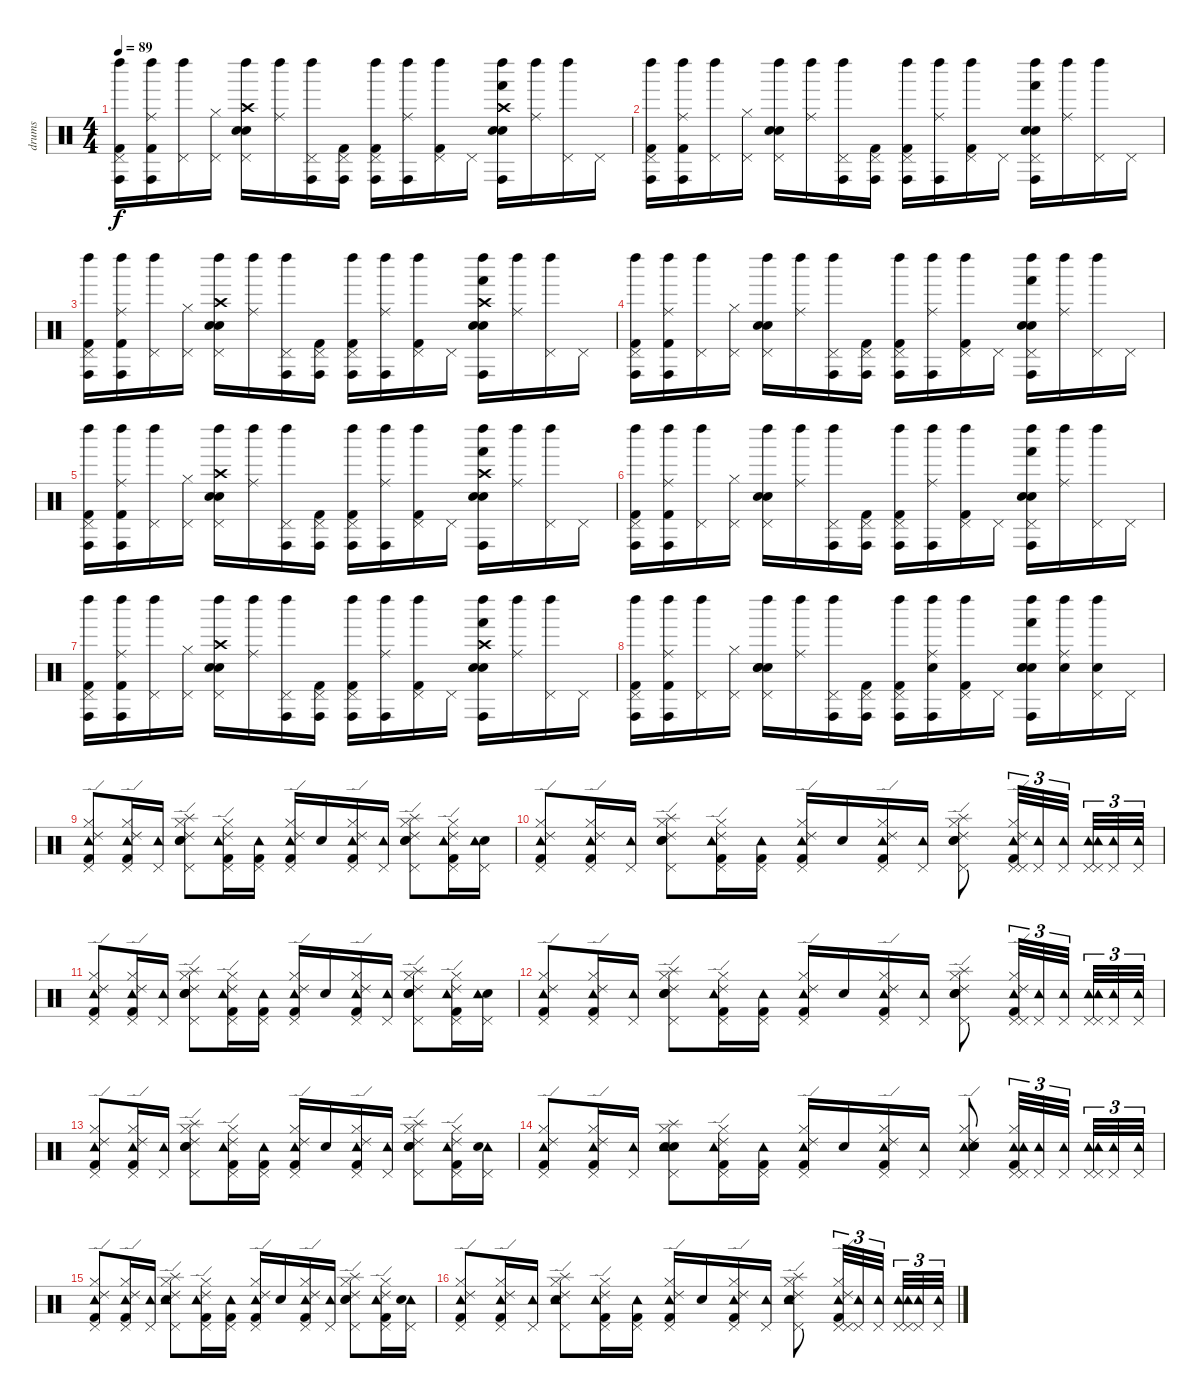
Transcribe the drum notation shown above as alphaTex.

\track ("drums" "drums") {instrument percussion}
\staff {score}
\articulation defaults
\ts (4 4)
\tempo 89
\clef neutral
\ks c
("Left Maraca (hit)" "Conga high (hit)" "Kick (hit) 2" "Pedal Hi-Hat (hit)").16{dy f} ("Left Maraca (hit)" "Conga high (hit)" "Kick (hit) 2" "Ride (middle)").16 ("Left Maraca (hit)" "Pedal Hi-Hat (hit)").16 ("Hi-Hat (closed)" "Pedal Hi-Hat (hit)").16 ("Left Maraca (hit)" "Crash high (hit)" "Hand Clap (hit)" "Hand Clap (hit)" "Pedal Hi-Hat (hit)").16 ("Left Maraca (hit)" "Ride (middle)").16 ("Left Maraca (hit)" "Conga high (hit)" "Pedal Hi-Hat (hit)").16 ("Conga high (hit)" "Kick (hit) 2" "Pedal Hi-Hat (hit)").16 ("Left Maraca (hit)" "Conga high (hit)" "Kick (hit) 2" "Pedal Hi-Hat (hit)").16 ("Left Maraca (hit)" "Conga high (hit)" "Ride (middle)").16 ("Left Maraca (hit)" "Kick (hit) 2" "Pedal Hi-Hat (hit)").16 "Pedal Hi-Hat (hit)".16 ("Left Maraca (hit)" "Hand (hit)" "Conga high (hit)" "Crash high (hit)" "Hand Clap (hit)" "Hand Clap (hit)").16 ("Left Maraca (hit)" "Ride (middle)").16 ("Left Maraca (hit)" "Pedal Hi-Hat (hit)").16 "Pedal Hi-Hat (hit)".16 |
("Left Maraca (hit)" "Conga high (hit)" "Kick (hit) 2" "Pedal Hi-Hat (hit)").16 ("Left Maraca (hit)" "Conga high (hit)" "Kick (hit) 2" "Ride (middle)").16 ("Left Maraca (hit)" "Pedal Hi-Hat (hit)").16 ("Hi-Hat (closed)" "Pedal Hi-Hat (hit)").16 ("Left Maraca (hit)" "Hand Clap (hit)" "Hand Clap (hit)" "Pedal Hi-Hat (hit)").16 ("Left Maraca (hit)" "Ride (middle)").16 ("Left Maraca (hit)" "Conga high (hit)" "Pedal Hi-Hat (hit)").16 ("Conga high (hit)" "Kick (hit) 2" "Pedal Hi-Hat (hit)").16 ("Left Maraca (hit)" "Conga high (hit)" "Kick (hit) 2" "Pedal Hi-Hat (hit)").16 ("Left Maraca (hit)" "Conga high (hit)" "Ride (middle)").16 ("Left Maraca (hit)" "Kick (hit) 2" "Pedal Hi-Hat (hit)").16 "Pedal Hi-Hat (hit)".16 ("Left Maraca (hit)" "Hand (hit)" "Conga high (hit)" "Hand Clap (hit)" "Hand Clap (hit)" "Pedal Hi-Hat (hit)").16 ("Left Maraca (hit)" "Ride (middle)").16 ("Left Maraca (hit)" "Pedal Hi-Hat (hit)").16 "Pedal Hi-Hat (hit)".16 |
("Left Maraca (hit)" "Conga high (hit)" "Kick (hit) 2" "Pedal Hi-Hat (hit)").16 ("Left Maraca (hit)" "Conga high (hit)" "Kick (hit) 2" "Ride (middle)").16 ("Left Maraca (hit)" "Pedal Hi-Hat (hit)").16 ("Hi-Hat (closed)" "Pedal Hi-Hat (hit)").16 ("Left Maraca (hit)" "Hand Clap (hit)" "Hand Clap (hit)" "Pedal Hi-Hat (hit)" "Crash high (hit)").16 ("Left Maraca (hit)" "Ride (middle)").16 ("Left Maraca (hit)" "Conga high (hit)" "Pedal Hi-Hat (hit)").16 ("Conga high (hit)" "Kick (hit) 2" "Pedal Hi-Hat (hit)").16 ("Left Maraca (hit)" "Conga high (hit)" "Kick (hit) 2" "Pedal Hi-Hat (hit)").16 ("Left Maraca (hit)" "Conga high (hit)" "Ride (middle)").16 ("Left Maraca (hit)" "Kick (hit) 2" "Pedal Hi-Hat (hit)").16 "Pedal Hi-Hat (hit)".16 ("Left Maraca (hit)" "Hand (hit)" "Conga high (hit)" "Crash high (hit)" "Hand Clap (hit)" "Hand Clap (hit)").16 ("Left Maraca (hit)" "Ride (middle)").16 ("Left Maraca (hit)" "Pedal Hi-Hat (hit)").16 "Pedal Hi-Hat (hit)".16 |
("Left Maraca (hit)" "Conga high (hit)" "Kick (hit) 2" "Pedal Hi-Hat (hit)").16 ("Left Maraca (hit)" "Conga high (hit)" "Kick (hit) 2" "Ride (middle)").16 ("Left Maraca (hit)" "Pedal Hi-Hat (hit)").16 ("Hi-Hat (closed)" "Pedal Hi-Hat (hit)").16 ("Left Maraca (hit)" "Hand Clap (hit)" "Hand Clap (hit)" "Pedal Hi-Hat (hit)").16 ("Left Maraca (hit)" "Ride (middle)").16 ("Left Maraca (hit)" "Conga high (hit)" "Pedal Hi-Hat (hit)").16 ("Conga high (hit)" "Kick (hit) 2" "Pedal Hi-Hat (hit)").16 ("Left Maraca (hit)" "Conga high (hit)" "Kick (hit) 2" "Pedal Hi-Hat (hit)").16 ("Left Maraca (hit)" "Conga high (hit)" "Ride (middle)").16 ("Left Maraca (hit)" "Kick (hit) 2" "Pedal Hi-Hat (hit)").16 "Pedal Hi-Hat (hit)".16 ("Left Maraca (hit)" "Hand (hit)" "Conga high (hit)" "Hand Clap (hit)" "Hand Clap (hit)" "Pedal Hi-Hat (hit)").16 ("Left Maraca (hit)" "Ride (middle)").16 ("Left Maraca (hit)" "Pedal Hi-Hat (hit)").16 "Pedal Hi-Hat (hit)".16 |
("Left Maraca (hit)" "Conga high (hit)" "Kick (hit) 2" "Pedal Hi-Hat (hit)").16 ("Left Maraca (hit)" "Conga high (hit)" "Kick (hit) 2" "Ride (middle)").16 ("Left Maraca (hit)" "Pedal Hi-Hat (hit)").16 ("Hi-Hat (closed)" "Pedal Hi-Hat (hit)").16 ("Left Maraca (hit)" "Crash high (hit)" "Hand Clap (hit)" "Hand Clap (hit)" "Pedal Hi-Hat (hit)").16 ("Left Maraca (hit)" "Ride (middle)").16 ("Left Maraca (hit)" "Conga high (hit)" "Pedal Hi-Hat (hit)").16 ("Conga high (hit)" "Kick (hit) 2" "Pedal Hi-Hat (hit)").16 ("Left Maraca (hit)" "Conga high (hit)" "Kick (hit) 2" "Pedal Hi-Hat (hit)").16 ("Left Maraca (hit)" "Conga high (hit)" "Ride (middle)").16 ("Left Maraca (hit)" "Kick (hit) 2" "Pedal Hi-Hat (hit)").16 "Pedal Hi-Hat (hit)".16 ("Left Maraca (hit)" "Hand (hit)" "Conga high (hit)" "Crash high (hit)" "Hand Clap (hit)" "Hand Clap (hit)").16 ("Left Maraca (hit)" "Ride (middle)").16 ("Left Maraca (hit)" "Pedal Hi-Hat (hit)").16 "Pedal Hi-Hat (hit)".16 |
("Left Maraca (hit)" "Conga high (hit)" "Kick (hit) 2" "Pedal Hi-Hat (hit)").16 ("Left Maraca (hit)" "Conga high (hit)" "Kick (hit) 2" "Ride (middle)").16 ("Left Maraca (hit)" "Pedal Hi-Hat (hit)").16 ("Hi-Hat (closed)" "Pedal Hi-Hat (hit)").16 ("Left Maraca (hit)" "Hand Clap (hit)" "Hand Clap (hit)" "Pedal Hi-Hat (hit)").16 ("Left Maraca (hit)" "Ride (middle)").16 ("Left Maraca (hit)" "Conga high (hit)" "Pedal Hi-Hat (hit)").16 ("Conga high (hit)" "Kick (hit) 2" "Pedal Hi-Hat (hit)").16 ("Left Maraca (hit)" "Conga high (hit)" "Kick (hit) 2" "Pedal Hi-Hat (hit)").16 ("Left Maraca (hit)" "Conga high (hit)" "Ride (middle)").16 ("Left Maraca (hit)" "Kick (hit) 2" "Pedal Hi-Hat (hit)").16 "Pedal Hi-Hat (hit)".16 ("Left Maraca (hit)" "Hand (hit)" "Conga high (hit)" "Hand Clap (hit)" "Hand Clap (hit)" "Pedal Hi-Hat (hit)").16 ("Left Maraca (hit)" "Ride (middle)").16 ("Left Maraca (hit)" "Pedal Hi-Hat (hit)").16 "Pedal Hi-Hat (hit)".16 |
("Left Maraca (hit)" "Conga high (hit)" "Kick (hit) 2" "Pedal Hi-Hat (hit)").16 ("Left Maraca (hit)" "Conga high (hit)" "Kick (hit) 2" "Ride (middle)").16 ("Left Maraca (hit)" "Pedal Hi-Hat (hit)").16 ("Hi-Hat (closed)" "Pedal Hi-Hat (hit)").16 ("Left Maraca (hit)" "Hand Clap (hit)" "Hand Clap (hit)" "Pedal Hi-Hat (hit)" "Crash high (hit)").16 ("Left Maraca (hit)" "Ride (middle)").16 ("Left Maraca (hit)" "Conga high (hit)" "Pedal Hi-Hat (hit)").16 ("Conga high (hit)" "Kick (hit) 2" "Pedal Hi-Hat (hit)").16 ("Left Maraca (hit)" "Conga high (hit)" "Kick (hit) 2" "Pedal Hi-Hat (hit)").16 ("Left Maraca (hit)" "Conga high (hit)" "Ride (middle)").16 ("Left Maraca (hit)" "Kick (hit) 2" "Pedal Hi-Hat (hit)").16 "Pedal Hi-Hat (hit)".16 ("Left Maraca (hit)" "Hand (hit)" "Conga high (hit)" "Crash high (hit)" "Hand Clap (hit)" "Hand Clap (hit)").16 ("Left Maraca (hit)" "Ride (middle)").16 ("Left Maraca (hit)" "Pedal Hi-Hat (hit)").16 "Pedal Hi-Hat (hit)".16 |
("Left Maraca (hit)" "Conga high (hit)" "Kick (hit) 2" "Pedal Hi-Hat (hit)").16 ("Left Maraca (hit)" "Conga high (hit)" "Kick (hit) 2" "Ride (middle)").16 ("Left Maraca (hit)" "Pedal Hi-Hat (hit)").16 ("Hi-Hat (closed)" "Pedal Hi-Hat (hit)").16 ("Electric Snare (hit)" "Left Maraca (hit)" "Hand Clap (hit)" "Hand Clap (hit)" "Pedal Hi-Hat (hit)").16 ("Left Maraca (hit)" "Ride (middle)").16 ("Left Maraca (hit)" "Conga high (hit)" "Pedal Hi-Hat (hit)").16 ("Conga high (hit)" "Kick (hit) 2" "Pedal Hi-Hat (hit)").16 ("Left Maraca (hit)" "Conga high (hit)" "Kick (hit) 2" "Pedal Hi-Hat (hit)").16 ("Electric Snare (hit)" "Left Maraca (hit)" "Conga high (hit)" "Ride (middle)").16 ("Left Maraca (hit)" "Kick (hit) 2" "Pedal Hi-Hat (hit)").16 "Pedal Hi-Hat (hit)".16 ("Electric Snare (hit)" "Left Maraca (hit)" "Hand (hit)" "Conga high (hit)" "Hand Clap (hit)" "Hand Clap (hit)").16 ("Electric Snare (hit)" "Left Maraca (hit)" "Ride (middle)").16 ("Electric Snare (hit)" "Left Maraca (hit)" "Pedal Hi-Hat (hit)").16 "Pedal Hi-Hat (hit)".16 |
("Pedal Hi-Hat (hit)" "Ride (edge) 2" "Hi-Hat (closed)" "Kick (hit) 2" "Tambourine (hit)").8 ("Pedal Hi-Hat (hit)" "Ride (edge) 2" "Hi-Hat (closed)" "Kick (hit) 2" "Tambourine (hit)").16 ("Pedal Hi-Hat (hit)" "Tambourine (hit)").16 ("Pedal Hi-Hat (hit)" "Ride (edge) 2" "Hi-Hat (closed)" "Electric Snare (hit)" "Splash (hit)" "Electric Snare (hit)").8 ("Pedal Hi-Hat (hit)" "Ride (edge) 2" "Hi-Hat (closed)" "Kick (hit) 2" "Tambourine (hit)").16 ("Pedal Hi-Hat (hit)" "Kick (hit) 2" "Tambourine (hit)").16 ("Pedal Hi-Hat (hit)" "Ride (edge) 2" "Kick (hit) 2" "Hi-Hat (closed)" "Tambourine (hit)").16 "Electric Snare (hit)".16 ("Pedal Hi-Hat (hit)" "Ride (edge) 2" "Hi-Hat (closed)" "Kick (hit) 2" "Tambourine (hit)").16 ("Pedal Hi-Hat (hit)" "Tambourine (hit)").16 ("Pedal Hi-Hat (hit)" "Ride (edge) 2" "Hi-Hat (closed)" "Splash (hit)" "Electric Snare (hit)" "Electric Snare (hit)").8 ("Pedal Hi-Hat (hit)" "Ride (edge) 2" "Hi-Hat (closed)" "Kick (hit) 2" "Tambourine (hit)").16 ("Pedal Hi-Hat (hit)" "Electric Snare (hit)" "Tambourine (hit)").16 |
("Pedal Hi-Hat (hit)" "Hi-Hat (closed)" "Kick (hit) 2" "Ride (edge) 2" "Tambourine (hit)").8 ("Pedal Hi-Hat (hit)" "Hi-Hat (closed)" "Kick (hit) 2" "Ride (edge) 2" "Tambourine (hit)").16 ("Pedal Hi-Hat (hit)" "Tambourine (hit)").16 ("Pedal Hi-Hat (hit)" "Hi-Hat (closed)" "Electric Snare (hit)" "Splash (hit)" "Electric Snare (hit)" "Ride (edge) 2").8 ("Pedal Hi-Hat (hit)" "Kick (hit) 2" "Hi-Hat (closed)" "Ride (edge) 2" "Tambourine (hit)").16 ("Pedal Hi-Hat (hit)" "Kick (hit) 2" "Tambourine (hit)").16 ("Pedal Hi-Hat (hit)" "Kick (hit) 2" "Hi-Hat (closed)" "Ride (edge) 2" "Tambourine (hit)").16 "Electric Snare (hit)".16 ("Pedal Hi-Hat (hit)" "Hi-Hat (closed)" "Kick (hit) 2" "Ride (edge) 2" "Tambourine (hit)").16 ("Pedal Hi-Hat (hit)" "Tambourine (hit)").16 ("Pedal Hi-Hat (hit)" "Hi-Hat (closed)" "Splash (hit)" "Electric Snare (hit)" "Electric Snare (hit)" "Ride (edge) 2").8 ("Pedal Hi-Hat (hit)" "Hi-Hat (closed)" "Pedal Hi-Hat (hit)" "Kick (hit) 2" "Ride (edge) 2" "Tambourine (hit)").32{tu (3 2)} ("Pedal Hi-Hat (hit)" "Tambourine (hit)").32{tu (3 2)} ("Pedal Hi-Hat (hit)" "Tambourine (hit)").32{tu (3 2) beam splitsecondary} ("Pedal Hi-Hat (hit)" "Pedal Hi-Hat (hit)" "Tambourine (hit)" "Tambourine (hit)").32{tu (3 2)} ("Pedal Hi-Hat (hit)" "Tambourine (hit)").32{tu (3 2)} ("Pedal Hi-Hat (hit)" "Tambourine (hit)").32{tu (3 2)} |
("Pedal Hi-Hat (hit)" "Ride (edge) 2" "Hi-Hat (closed)" "Kick (hit) 2" "Tambourine (hit)").8 ("Pedal Hi-Hat (hit)" "Ride (edge) 2" "Hi-Hat (closed)" "Kick (hit) 2" "Tambourine (hit)").16 ("Pedal Hi-Hat (hit)" "Tambourine (hit)").16 ("Pedal Hi-Hat (hit)" "Ride (edge) 2" "Hi-Hat (closed)" "Electric Snare (hit)" "Splash (hit)" "Electric Snare (hit)").8 ("Pedal Hi-Hat (hit)" "Ride (edge) 2" "Hi-Hat (closed)" "Kick (hit) 2" "Tambourine (hit)").16 ("Pedal Hi-Hat (hit)" "Kick (hit) 2" "Tambourine (hit)").16 ("Pedal Hi-Hat (hit)" "Ride (edge) 2" "Kick (hit) 2" "Hi-Hat (closed)" "Tambourine (hit)").16 "Electric Snare (hit)".16 ("Pedal Hi-Hat (hit)" "Ride (edge) 2" "Hi-Hat (closed)" "Kick (hit) 2" "Tambourine (hit)").16 ("Pedal Hi-Hat (hit)" "Tambourine (hit)").16 ("Pedal Hi-Hat (hit)" "Ride (edge) 2" "Hi-Hat (closed)" "Splash (hit)" "Electric Snare (hit)" "Electric Snare (hit)").8 ("Pedal Hi-Hat (hit)" "Ride (edge) 2" "Hi-Hat (closed)" "Kick (hit) 2" "Tambourine (hit)").16 ("Pedal Hi-Hat (hit)" "Electric Snare (hit)" "Tambourine (hit)").16 |
("Pedal Hi-Hat (hit)" "Hi-Hat (closed)" "Kick (hit) 2" "Ride (edge) 2" "Tambourine (hit)").8 ("Pedal Hi-Hat (hit)" "Hi-Hat (closed)" "Kick (hit) 2" "Ride (edge) 2" "Tambourine (hit)").16 ("Pedal Hi-Hat (hit)" "Tambourine (hit)").16 ("Pedal Hi-Hat (hit)" "Hi-Hat (closed)" "Electric Snare (hit)" "Splash (hit)" "Electric Snare (hit)" "Ride (edge) 2").8 ("Pedal Hi-Hat (hit)" "Kick (hit) 2" "Hi-Hat (closed)" "Ride (edge) 2" "Tambourine (hit)").16 ("Pedal Hi-Hat (hit)" "Kick (hit) 2" "Tambourine (hit)").16 ("Pedal Hi-Hat (hit)" "Kick (hit) 2" "Hi-Hat (closed)" "Ride (edge) 2" "Tambourine (hit)").16 "Electric Snare (hit)".16 ("Pedal Hi-Hat (hit)" "Hi-Hat (closed)" "Kick (hit) 2" "Ride (edge) 2" "Tambourine (hit)").16 ("Pedal Hi-Hat (hit)" "Tambourine (hit)").16 ("Pedal Hi-Hat (hit)" "Hi-Hat (closed)" "Splash (hit)" "Electric Snare (hit)" "Electric Snare (hit)" "Ride (edge) 2").8 ("Pedal Hi-Hat (hit)" "Hi-Hat (closed)" "Pedal Hi-Hat (hit)" "Kick (hit) 2" "Ride (edge) 2" "Tambourine (hit)").32{tu (3 2)} ("Pedal Hi-Hat (hit)" "Tambourine (hit)").32{tu (3 2)} ("Pedal Hi-Hat (hit)" "Tambourine (hit)").32{tu (3 2) beam splitsecondary} ("Pedal Hi-Hat (hit)" "Pedal Hi-Hat (hit)" "Tambourine (hit)" "Tambourine (hit)").32{tu (3 2)} ("Pedal Hi-Hat (hit)" "Tambourine (hit)").32{tu (3 2)} ("Pedal Hi-Hat (hit)" "Tambourine (hit)").32{tu (3 2)} |
("Pedal Hi-Hat (hit)" "Ride (edge) 2" "Hi-Hat (closed)" "Kick (hit) 2" "Tambourine (hit)").8 ("Ride (edge) 2" "Hi-Hat (closed)" "Kick (hit) 2" "Tambourine (hit)" "Pedal Hi-Hat (hit)").16 ("Tambourine (hit)" "Pedal Hi-Hat (hit)").16 ("Pedal Hi-Hat (hit)" "Splash (hit)" "Electric Snare (hit)" "Hi-Hat (closed)" "Electric Snare (hit)" "Ride (edge) 2").8 ("Pedal Hi-Hat (hit)" "Ride (edge) 2" "Tambourine (hit)" "Hi-Hat (closed)" "Kick (hit) 2").16 ("Tambourine (hit)" "Pedal Hi-Hat (hit)" "Kick (hit) 2").16 ("Pedal Hi-Hat (hit)" "Ride (edge) 2" "Tambourine (hit)" "Kick (hit) 2" "Hi-Hat (closed)").16 "Electric Snare (hit)".16 ("Tambourine (hit)" "Pedal Hi-Hat (hit)" "Ride (edge) 2" "Hi-Hat (closed)" "Kick (hit) 2").16 ("Pedal Hi-Hat (hit)" "Tambourine (hit)").16 ("Hi-Hat (closed)" "Electric Snare (hit)" "Electric Snare (hit)" "Splash (hit)" "Ride (edge) 2" "Pedal Hi-Hat (hit)").8 ("Tambourine (hit)" "Ride (edge) 2" "Hi-Hat (closed)" "Pedal Hi-Hat (hit)" "Kick (hit) 2").16 ("Tambourine (hit)" "Electric Snare (hit)" "Pedal Hi-Hat (hit)").16 |
("Tambourine (hit)" "Pedal Hi-Hat (hit)" "Hi-Hat (closed)" "Kick (hit) 2" "Ride (edge) 2").8 ("Pedal Hi-Hat (hit)" "Hi-Hat (closed)" "Kick (hit) 2" "Tambourine (hit)" "Ride (edge) 2").16 ("Pedal Hi-Hat (hit)" "Tambourine (hit)").16 ("Hi-Hat (closed)" "Splash (hit)" "Electric Snare (hit)" "Electric Snare (hit)" "Tambourine (hit)" "Pedal Hi-Hat (hit)").8 ("Ride (edge) 2" "Kick (hit) 2" "Hi-Hat (closed)" "Pedal Hi-Hat (hit)" "Tambourine (hit)").16 ("Pedal Hi-Hat (hit)" "Tambourine (hit)" "Kick (hit) 2").16 ("Tambourine (hit)" "Kick (hit) 2" "Pedal Hi-Hat (hit)" "Hi-Hat (closed)" "Ride (edge) 2").16 "Electric Snare (hit)".16 ("Pedal Hi-Hat (hit)" "Hi-Hat (closed)" "Kick (hit) 2" "Ride (edge) 2" "Tambourine (hit)").16 ("Tambourine (hit)" "Pedal Hi-Hat (hit)").16 ("Hi-Hat (closed)" "Pedal Hi-Hat (hit)" "Tambourine (hit)" "Electric Snare (hit)" "Electric Snare (hit)" "Ride (edge) 2").8 ("Pedal Hi-Hat (hit)" "Hi-Hat (closed)" "Tambourine (hit)" "Tambourine (hit)" "Pedal Hi-Hat (hit)" "Kick (hit) 2").32{tu (3 2)} ("Tambourine (hit)" "Pedal Hi-Hat (hit)").32{tu (3 2)} ("Tambourine (hit)" "Pedal Hi-Hat (hit)").32{tu (3 2) beam splitsecondary} ("Tambourine (hit)" "Pedal Hi-Hat (hit)" "Pedal Hi-Hat (hit)" "Tambourine (hit)").32{tu (3 2)} ("Tambourine (hit)" "Pedal Hi-Hat (hit)").32{tu (3 2)} ("Tambourine (hit)" "Pedal Hi-Hat (hit)").32{tu (3 2)} |
("Ride (edge) 2" "Pedal Hi-Hat (hit)" "Hi-Hat (closed)" "Kick (hit) 2" "Tambourine (hit)").8 ("Pedal Hi-Hat (hit)" "Tambourine (hit)" "Kick (hit) 2" "Ride (edge) 2" "Hi-Hat (closed)").16 ("Tambourine (hit)" "Pedal Hi-Hat (hit)").16 ("Pedal Hi-Hat (hit)" "Ride (edge) 2" "Tambourine (hit)" "Hi-Hat (closed)" "Electric Snare (hit)" "Splash (hit)").8 ("Pedal Hi-Hat (hit)" "Ride (edge) 2" "Tambourine (hit)" "Kick (hit) 2" "Hi-Hat (closed)").16 ("Tambourine (hit)" "Kick (hit) 2" "Pedal Hi-Hat (hit)").16 ("Ride (edge) 2" "Kick (hit) 2" "Hi-Hat (closed)" "Pedal Hi-Hat (hit)" "Tambourine (hit)").16 "Electric Snare (hit)".16 ("Tambourine (hit)" "Ride (edge) 2" "Pedal Hi-Hat (hit)" "Hi-Hat (closed)" "Kick (hit) 2").16 ("Tambourine (hit)" "Pedal Hi-Hat (hit)").16 ("Pedal Hi-Hat (hit)" "Ride (edge) 2" "Hi-Hat (closed)" "Splash (hit)" "Electric Snare (hit)" "Electric Snare (hit)").8 ("Pedal Hi-Hat (hit)" "Tambourine (hit)" "Hi-Hat (closed)" "Kick (hit) 2" "Ride (edge) 2").16 ("Pedal Hi-Hat (hit)" "Tambourine (hit)" "Electric Snare (hit)").16 |
("Hi-Hat (closed)" "Pedal Hi-Hat (hit)" "Tambourine (hit)" "Kick (hit) 2" "Ride (edge) 2").8 ("Ride (edge) 2" "Hi-Hat (closed)" "Kick (hit) 2" "Pedal Hi-Hat (hit)" "Tambourine (hit)").16 ("Tambourine (hit)" "Pedal Hi-Hat (hit)").16 ("Tambourine (hit)" "Ride (edge) 2" "Pedal Hi-Hat (hit)" "Hi-Hat (closed)" "Electric Snare (hit)" "Splash (hit)").8 ("Pedal Hi-Hat (hit)" "Kick (hit) 2" "Hi-Hat (closed)" "Ride (edge) 2" "Tambourine (hit)").16 ("Pedal Hi-Hat (hit)" "Kick (hit) 2" "Tambourine (hit)").16 ("Tambourine (hit)" "Hi-Hat (closed)" "Ride (edge) 2" "Kick (hit) 2" "Pedal Hi-Hat (hit)").16 "Electric Snare (hit)".16 ("Pedal Hi-Hat (hit)" "Tambourine (hit)" "Hi-Hat (closed)" "Kick (hit) 2" "Ride (edge) 2").16 ("Tambourine (hit)" "Pedal Hi-Hat (hit)").16 ("Tambourine (hit)" "Splash (hit)" "Pedal Hi-Hat (hit)" "Hi-Hat (closed)" "Ride (edge) 2" "Electric Snare (hit)").8 ("Tambourine (hit)" "Pedal Hi-Hat (hit)" "Hi-Hat (closed)" "Pedal Hi-Hat (hit)" "Kick (hit) 2" "Ride (edge) 2").32{tu (3 2)} ("Tambourine (hit)" "Pedal Hi-Hat (hit)").32{tu (3 2)} ("Tambourine (hit)" "Pedal Hi-Hat (hit)").32{tu (3 2) beam splitsecondary} ("Pedal Hi-Hat (hit)" "Pedal Hi-Hat (hit)" "Tambourine (hit)" "Tambourine (hit)").32{tu (3 2)} ("Tambourine (hit)" "Pedal Hi-Hat (hit)").32{tu (3 2)} ("Pedal Hi-Hat (hit)" "Tambourine (hit)").32{tu (3 2)}
